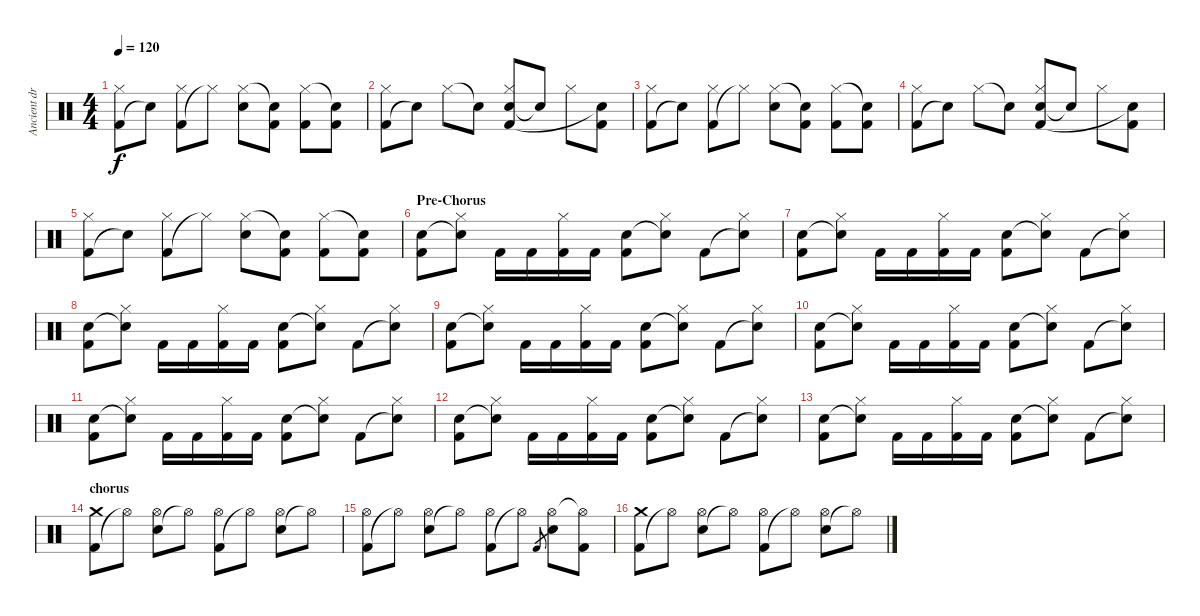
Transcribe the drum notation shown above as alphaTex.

\track ("Ancient drum type things :S" "Ancient dr") {instrument percussion}
\staff {score}
\articulation defaults
\ts (4 4)
\tempo 120
\clef neutral
\ks c
("Kick (hit) 2" "Hi-Hat (closed)").8{dy f} "Snare (hit)"{t}.8 ("Kick (hit) 2" "Hi-Hat (closed)").8 "Hi-Hat (closed)"{t}.8 ("Snare (hit) 2" "Hi-Hat (closed)").8 ("Kick (hit) 2" "Snare (hit)"{t}).8 ("Kick (hit) 2" "Hi-Hat (closed)").8 ("Kick (hit) 2" "Snare (hit)"{t}).8 |
("Kick (hit) 2" "Hi-Hat (closed)").8 "Snare (hit)"{t}.8 "Hi-Hat (closed)".8 "Snare (hit)"{t}.8 ("Snare (hit) 2" "Kick (hit) 2" "Hi-Hat (closed)").8 "Snare (hit)"{t}.8 "Hi-Hat (closed)".8 ("Kick (hit) 2" "Snare (hit)"{t}).8 |
("Kick (hit) 2" "Hi-Hat (closed)").8 "Snare (hit)"{t}.8 ("Kick (hit) 2" "Hi-Hat (closed)").8 "Hi-Hat (closed)"{t}.8 ("Snare (hit) 2" "Hi-Hat (closed)").8 ("Kick (hit) 2" "Snare (hit)"{t}).8 ("Kick (hit) 2" "Hi-Hat (closed)").8 ("Kick (hit) 2" "Snare (hit)"{t}).8 |
("Kick (hit) 2" "Hi-Hat (closed)").8 "Snare (hit)"{t}.8 "Hi-Hat (closed)".8 "Snare (hit)"{t}.8 ("Snare (hit) 2" "Kick (hit) 2" "Hi-Hat (closed)").8 "Snare (hit)"{t}.8 "Hi-Hat (closed)".8 ("Kick (hit) 2" "Snare (hit)"{t}).8 |
("Kick (hit) 2" "Hi-Hat (closed)").8 "Snare (hit)"{t}.8 ("Kick (hit) 2" "Hi-Hat (closed)").8 "Hi-Hat (closed)"{t}.8 ("Snare (hit) 2" "Hi-Hat (closed)").8 ("Kick (hit) 2" "Snare (hit)"{t}).8 ("Kick (hit) 2" "Hi-Hat (closed)").8 ("Kick (hit) 2" "Snare (hit)"{t}).8 |
\section ("" "Pre-Chorus")
("Snare (hit) 2" "Kick (hit) 2").8 ("Snare (hit)"{t} "Hi-Hat (closed)").8 "Kick (hit) 2".16 "Kick (hit) 2".16 ("Kick (hit) 2" "Hi-Hat (closed)").16 "Kick (hit) 2".16 ("Snare (hit) 2" "Kick (hit) 2").8 ("Snare (hit)"{t} "Hi-Hat (closed)").8 "Kick (hit) 2".8 ("Snare (hit)"{t} "Hi-Hat (closed)").8 |
("Snare (hit) 2" "Kick (hit) 2").8 ("Snare (hit)"{t} "Hi-Hat (closed)").8 "Kick (hit) 2".16 "Kick (hit) 2".16 ("Kick (hit) 2" "Hi-Hat (closed)").16 "Kick (hit) 2".16 ("Snare (hit) 2" "Kick (hit) 2").8 ("Snare (hit)"{t} "Hi-Hat (closed)").8 "Kick (hit) 2".8 ("Snare (hit)"{t} "Hi-Hat (closed)").8 |
("Snare (hit) 2" "Kick (hit) 2").8 ("Snare (hit)"{t} "Hi-Hat (closed)").8 "Kick (hit) 2".16 "Kick (hit) 2".16 ("Kick (hit) 2" "Hi-Hat (closed)").16 "Kick (hit) 2".16 ("Snare (hit) 2" "Kick (hit) 2").8 ("Snare (hit)"{t} "Hi-Hat (closed)").8 "Kick (hit) 2".8 ("Snare (hit)"{t} "Hi-Hat (closed)").8 |
("Snare (hit) 2" "Kick (hit) 2").8 ("Snare (hit)"{t} "Hi-Hat (closed)").8 "Kick (hit) 2".16 "Kick (hit) 2".16 ("Kick (hit) 2" "Hi-Hat (closed)").16 "Kick (hit) 2".16 ("Snare (hit) 2" "Kick (hit) 2").8 ("Snare (hit)"{t} "Hi-Hat (closed)").8 "Kick (hit) 2".8 ("Snare (hit)"{t} "Hi-Hat (closed)").8 |
("Snare (hit) 2" "Kick (hit) 2").8 ("Snare (hit)"{t} "Hi-Hat (closed)").8 "Kick (hit) 2".16 "Kick (hit) 2".16 ("Kick (hit) 2" "Hi-Hat (closed)").16 "Kick (hit) 2".16 ("Snare (hit) 2" "Kick (hit) 2").8 ("Snare (hit)"{t} "Hi-Hat (closed)").8 "Kick (hit) 2".8 ("Snare (hit)"{t} "Hi-Hat (closed)").8 |
("Snare (hit) 2" "Kick (hit) 2").8 ("Snare (hit)"{t} "Hi-Hat (closed)").8 "Kick (hit) 2".16 "Kick (hit) 2".16 ("Kick (hit) 2" "Hi-Hat (closed)").16 "Kick (hit) 2".16 ("Snare (hit) 2" "Kick (hit) 2").8 ("Snare (hit)"{t} "Hi-Hat (closed)").8 "Kick (hit) 2".8 ("Snare (hit)"{t} "Hi-Hat (closed)").8 |
("Snare (hit) 2" "Kick (hit) 2").8 ("Snare (hit)"{t} "Hi-Hat (closed)").8 "Kick (hit) 2".16 "Kick (hit) 2".16 ("Kick (hit) 2" "Hi-Hat (closed)").16 "Kick (hit) 2".16 ("Snare (hit) 2" "Kick (hit) 2").8 ("Snare (hit)"{t} "Hi-Hat (closed)").8 "Kick (hit) 2".8 ("Snare (hit)"{t} "Hi-Hat (closed)").8 |
("Snare (hit) 2" "Kick (hit) 2").8 ("Snare (hit)"{t} "Hi-Hat (closed)").8 "Kick (hit) 2".16 "Kick (hit) 2".16 ("Kick (hit) 2" "Hi-Hat (closed)").16 "Kick (hit) 2".16 ("Snare (hit) 2" "Kick (hit) 2").8 ("Snare (hit)"{t} "Hi-Hat (closed)").8 "Kick (hit) 2".8 ("Snare (hit)"{t} "Hi-Hat (closed)").8 |
\section ("" "chorus")
("Kick (hit) 2" "Crash medium (hit)").8 "Hi-Hat (open)"{t}.8 ("Electric Snare (hit)" "Hi-Hat (open)").8 "Hi-Hat (open)"{t}.8 ("Kick (hit) 2" "Hi-Hat (open)").8 "Hi-Hat (open)"{t}.8 ("Electric Snare (hit)" "Hi-Hat (open)").8 "Hi-Hat (open)"{t}.8 |
("Kick (hit) 2" "Hi-Hat (open)").8 "Hi-Hat (open)"{t}.8 ("Electric Snare (hit)" "Hi-Hat (open)").8 "Hi-Hat (open)"{t}.8 ("Kick (hit) 2" "Hi-Hat (open)").8 "Hi-Hat (open)"{t}.8 "Kick (hit) 2".8{gr} ("Electric Snare (hit)" "Hi-Hat (open)").8 ("Kick (hit) 2" "Hi-Hat (open)"{t}).8 |
("Kick (hit) 2" "Crash medium (hit)").8 "Hi-Hat (open)"{t}.8 ("Electric Snare (hit)" "Hi-Hat (open)").8 "Hi-Hat (open)"{t}.8 ("Kick (hit) 2" "Hi-Hat (open)").8 "Hi-Hat (open)"{t}.8 ("Electric Snare (hit)" "Hi-Hat (open)").8 "Hi-Hat (open)"{t}.8
